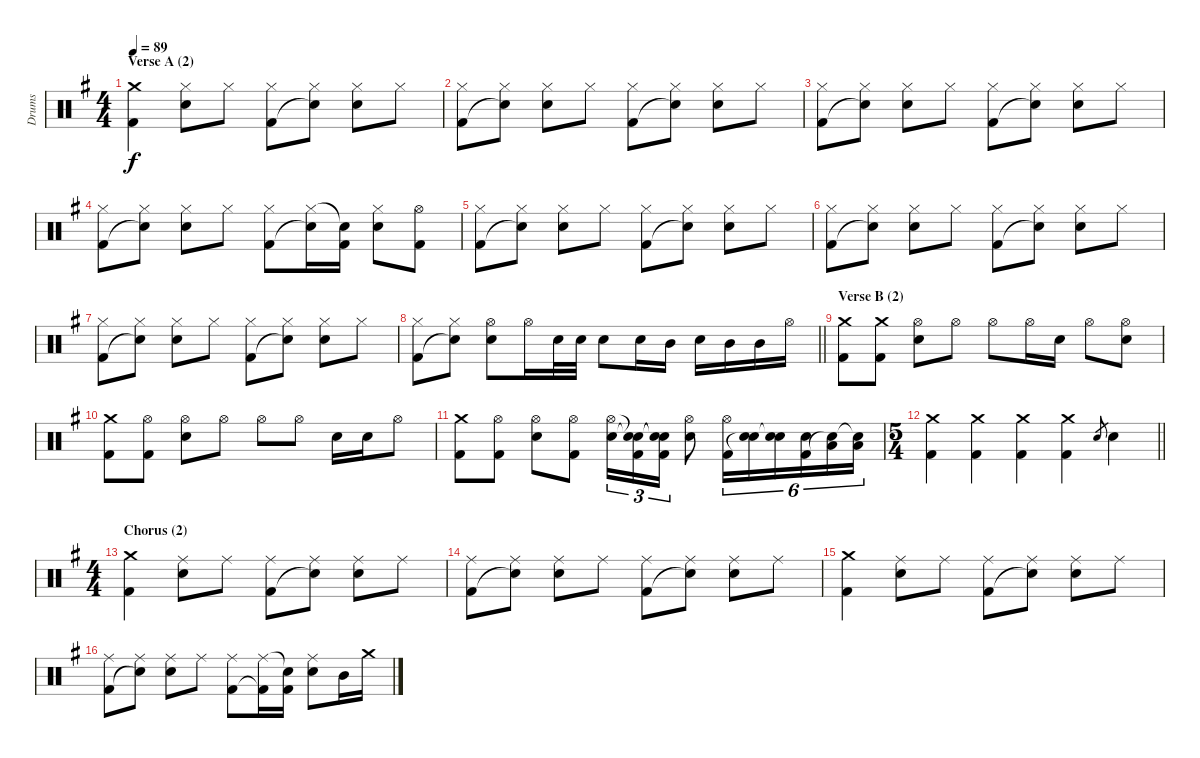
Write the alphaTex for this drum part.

\track ("Drums" "Drums") {instrument percussion}
\staff {score}
\articulation defaults
\ts (4 4)
\section ("" "Verse A (2)")
\tempo 89
\clef neutral
\ks g
("Crash medium (hit)" "Kick (hit) 2").4{dy f} ("Hi-Hat (closed)" "Electric Snare (hit)").8 "Hi-Hat (closed)".8 ("Hi-Hat (closed)" "Kick (hit) 2").8 ("Hi-Hat (closed)" "Snare (hit)"{t}).8 ("Hi-Hat (closed)" "Electric Snare (hit)").8 "Hi-Hat (closed)".8 |
("Hi-Hat (closed)" "Kick (hit) 2").8 ("Hi-Hat (closed)" "Snare (hit)"{t}).8 ("Hi-Hat (closed)" "Electric Snare (hit)").8 "Hi-Hat (closed)".8 ("Hi-Hat (closed)" "Kick (hit) 2").8 ("Hi-Hat (closed)" "Snare (hit)"{t}).8 ("Hi-Hat (closed)" "Electric Snare (hit)").8 "Hi-Hat (closed)".8 |
("Hi-Hat (closed)" "Kick (hit) 2").8 ("Hi-Hat (closed)" "Snare (hit)"{t}).8 ("Hi-Hat (closed)" "Electric Snare (hit)").8 "Hi-Hat (closed)".8 ("Hi-Hat (closed)" "Kick (hit) 2").8 ("Hi-Hat (closed)" "Snare (hit)"{t}).8 ("Hi-Hat (closed)" "Electric Snare (hit)").8 "Hi-Hat (closed)".8 |
("Hi-Hat (closed)" "Kick (hit) 2").8 ("Hi-Hat (closed)" "Snare (hit)"{t}).8 ("Hi-Hat (closed)" "Electric Snare (hit)").8 "Hi-Hat (closed)".8 ("Hi-Hat (closed)" "Kick (hit) 2").8 ("Hi-Hat (closed)" "Snare (hit)"{t}).16 ("Snare (hit)"{t} "Kick (hit) 2").16 ("Hi-Hat (closed)" "Electric Snare (hit)").8 ("Hi-Hat (open)" "Kick (hit) 2").8 |
("Hi-Hat (closed)" "Kick (hit) 2").8 ("Hi-Hat (closed)" "Snare (hit)"{t}).8 ("Hi-Hat (closed)" "Electric Snare (hit)").8 "Hi-Hat (closed)".8 ("Hi-Hat (closed)" "Kick (hit) 2").8 ("Hi-Hat (closed)" "Snare (hit)"{t}).8 ("Hi-Hat (closed)" "Electric Snare (hit)").8 "Hi-Hat (closed)".8 |
("Hi-Hat (closed)" "Kick (hit) 2").8 ("Hi-Hat (closed)" "Snare (hit)"{t}).8 ("Hi-Hat (closed)" "Electric Snare (hit)").8 "Hi-Hat (closed)".8 ("Hi-Hat (closed)" "Kick (hit) 2").8 ("Hi-Hat (closed)" "Snare (hit)"{t}).8 ("Hi-Hat (closed)" "Electric Snare (hit)").8 "Hi-Hat (closed)".8 |
("Hi-Hat (closed)" "Kick (hit) 2").8 ("Hi-Hat (closed)" "Snare (hit)"{t}).8 ("Hi-Hat (closed)" "Electric Snare (hit)").8 "Hi-Hat (closed)".8 ("Hi-Hat (closed)" "Kick (hit) 2").8 ("Hi-Hat (closed)" "Snare (hit)"{t}).8 ("Hi-Hat (closed)" "Electric Snare (hit)").8 "Hi-Hat (closed)".8 |
\barLineRight lightlight
("Hi-Hat (closed)" "Kick (hit) 2").8 ("Hi-Hat (closed)" "Snare (hit)"{t}).8 ("Hi-Hat (open)" "Electric Snare (hit)").8 "Hi-Hat (open)".16 "Electric Snare (hit)".32 "Electric Snare (hit)".32 "Electric Snare (hit)".8 "Electric Snare (hit)".16 "Mid Tom (hit)".16 "Electric Snare (hit)".16 "Mid Tom (hit)".16 "Mid Tom (hit)".16 "Hi-Hat (open)".16 |
\section ("" "Verse B (2)")
("Crash medium (hit)" "Kick (hit) 2").8 ("Crash medium (hit)" "Kick (hit) 2").8 ("Hi-Hat (open)" "Electric Snare (hit)").8 "Hi-Hat (open)".8 "Hi-Hat (open)".8 "Hi-Hat (open)".16 "Electric Snare (hit)".16 "Hi-Hat (open)".8 ("Hi-Hat (open)" "Electric Snare (hit)").8 |
("Crash medium (hit)" "Kick (hit) 2").8 ("Hi-Hat (open)" "Kick (hit) 2").8 ("Hi-Hat (open)" "Electric Snare (hit)").8 "Hi-Hat (open)".8 "Hi-Hat (open)".8 "Hi-Hat (open)".8 "Electric Snare (hit)".16 "Electric Snare (hit)".16 "Hi-Hat (open)".8 |
("Crash medium (hit)" "Kick (hit) 2").8 ("Hi-Hat (open)" "Kick (hit) 2").8 ("Hi-Hat (open)" "Electric Snare (hit)").8 ("Hi-Hat (open)" "Kick (hit) 2").8 ("Hi-Hat (open)" "Electric Snare (hit)").16{tu (3 2)} ("Snare (hit)"{t} "Snare (hit)"{t} "Kick (hit) 2").16{tu (3 2)} ("Snare (hit)"{t} "Snare (hit)"{t} "Kick (hit) 2").16{tu (3 2)} ("Hi-Hat (open)" "Electric Snare (hit)").8 ("Hi-Hat (open)" "Kick (hit) 2").16{tu (6 4)} ("Electric Snare (hit)" "Snare (hit)"{t}).16{tu (6 4)} ("Electric Snare (hit)" "Snare (hit)"{t}).16{tu (6 4)} ("Electric Snare (hit)" "Kick (hit) 2").16{tu (6 4)} ("Low Tom (hit)" "Snare (hit)"{t}).16{tu (6 4)} ("Low Tom (hit)" "Snare (hit)"{t}).16{tu (6 4)} |
\ts (5 4)
\barLineRight lightlight
("Crash medium (hit)" "Kick (hit) 2").4 ("Crash medium (hit)" "Kick (hit) 2").4 ("Crash medium (hit)" "Kick (hit) 2").4 ("Crash medium (hit)" "Kick (hit) 2").4 "Electric Snare (hit)".8{gr} "Electric Snare (hit)".4 |
\ts (4 4)
\section ("" "Chorus (2)")
("Crash medium (hit)" "Kick (hit) 2").4 ("Ride (middle)" "Electric Snare (hit)").8 "Ride (middle)".8 ("Ride (middle)" "Kick (hit) 2").8 ("Ride (middle)" "Snare (hit)"{t}).8 ("Ride (middle)" "Electric Snare (hit)").8 "Ride (middle)".8 |
("Ride (middle)" "Kick (hit) 2").8 ("Ride (middle)" "Snare (hit)"{t}).8 ("Ride (middle)" "Electric Snare (hit)").8 "Ride (middle)".8 ("Ride (middle)" "Kick (hit) 2").8 ("Ride (middle)" "Snare (hit)"{t}).8 ("Ride (middle)" "Electric Snare (hit)").8 "Ride (middle)".8 |
("Crash medium (hit)" "Kick (hit) 2").4 ("Ride (middle)" "Electric Snare (hit)").8 "Ride (middle)".8 ("Ride (middle)" "Kick (hit) 2").8 ("Ride (middle)" "Snare (hit)"{t}).8 ("Ride (middle)" "Electric Snare (hit)").8 "Ride (middle)".8 |
("Ride (middle)" "Kick (hit) 2").8 ("Ride (middle)" "Snare (hit)"{t}).8 ("Ride (middle)" "Electric Snare (hit)").8 "Ride (middle)".8 ("Ride (middle)" "Kick (hit) 2").8 ("Ride (middle)" "Kick (hit) 2"{t}).16 ("Snare (hit)"{t} "Kick (hit) 2").16 ("Ride (middle)" "Electric Snare (hit)").8 "Mid Tom (hit)".16 "Crash medium (hit)".16
